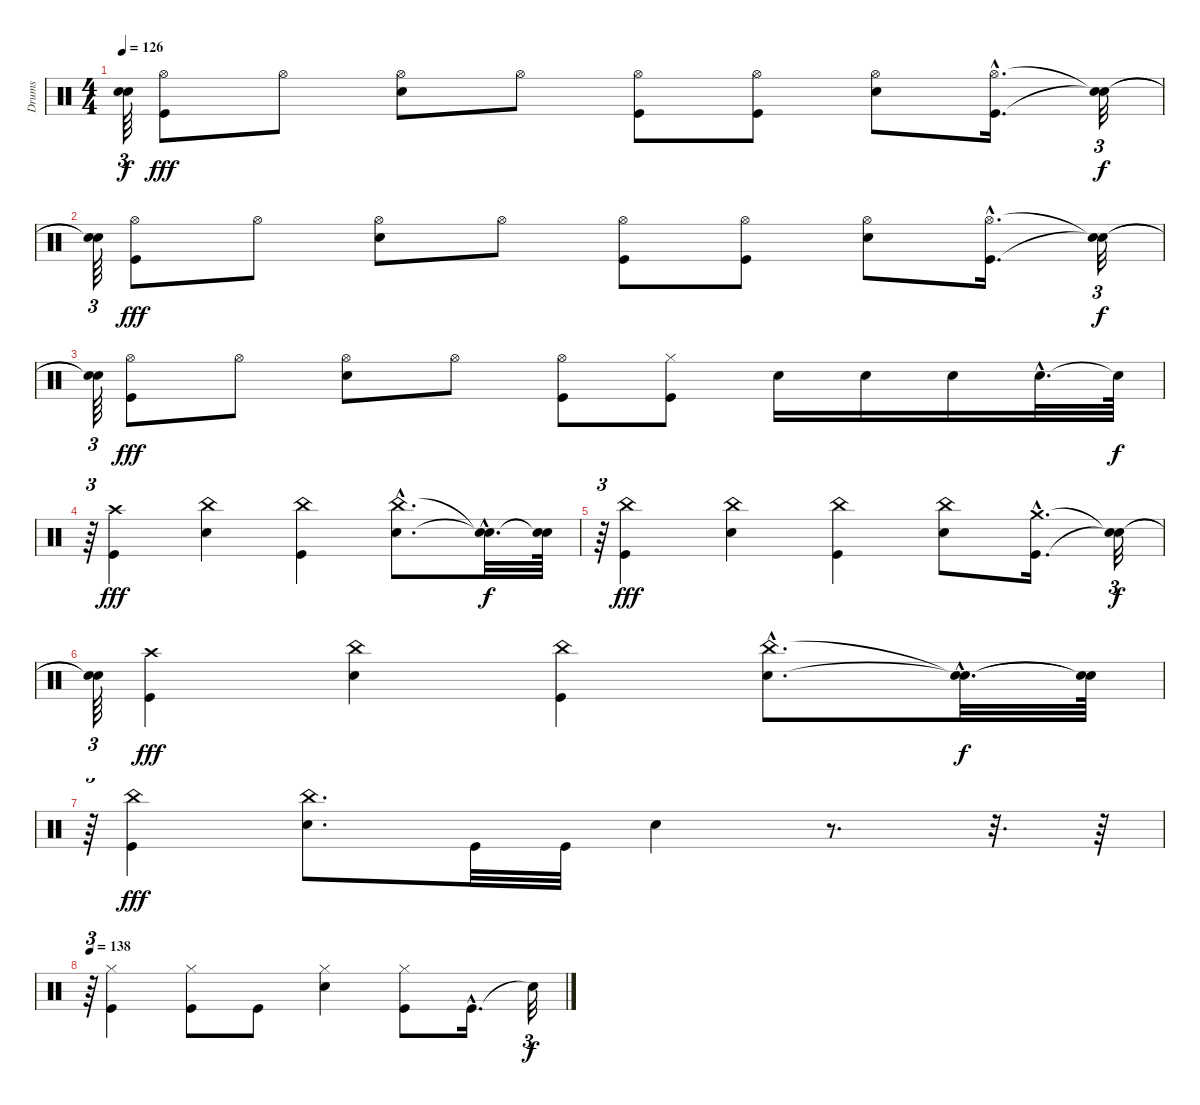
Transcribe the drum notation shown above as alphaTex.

\track ("Drums" "Drums") {instrument percussion}
\staff {score}
\articulation defaults
\ts (4 4)
\tempo 126
\clef neutral
\ks c
("Snare (hit)"{t} "Snare (hit)"{t}).64{tu (3 2) dy f} ("Kick (hit)" "Hi-Hat (open)").8{dy fff} "Hi-Hat (open)".8 ("Snare (hit) 2" "Hi-Hat (open)").8 "Hi-Hat (open)".8 ("Kick (hit)" "Hi-Hat (open)").8 ("Kick (hit)" "Hi-Hat (open)").8 ("Snare (hit) 2" "Hi-Hat (open)").8 ("Kick (hit)"{hac} "Hi-Hat (open)"{hac}).16{d} ("Snare (hit)"{t} "Snare (hit)"{t}).32{tu (3 2) dy f} |
("Snare (hit)"{t} "Snare (hit)"{t}).64{tu (3 2)} ("Kick (hit)" "Hi-Hat (open)").8{dy fff} "Hi-Hat (open)".8 ("Snare (hit) 2" "Hi-Hat (open)").8 "Hi-Hat (open)".8 ("Kick (hit)" "Hi-Hat (open)").8 ("Kick (hit)" "Hi-Hat (open)").8 ("Snare (hit) 2" "Hi-Hat (open)").8 ("Kick (hit)"{hac} "Hi-Hat (open)"{hac}).16{d} ("Snare (hit)"{t} "Snare (hit)"{t}).32{tu (3 2) dy f} |
("Snare (hit)"{t} "Snare (hit)"{t}).64{tu (3 2)} ("Kick (hit)" "Hi-Hat (open)").8{dy fff} "Hi-Hat (open)".8 ("Snare (hit) 2" "Hi-Hat (open)").8 "Hi-Hat (open)".8 ("Kick (hit)" "Hi-Hat (open)").8 ("Kick (hit)" "Hi-Hat (closed)").8 "Snare (hit) 2".16 "Snare (hit) 2".16 "Snare (hit) 2".16 "Snare (hit) 2"{hac}.32{d} "Snare (hit)"{t}.64{dy f} |
r.64{tu (3 2)} ("Kick (hit)" "Crash high (hit)").4{dy fff} ("Snare (hit) 2" "China (hit)").4 ("Kick (hit)" "China (hit)").4 ("Snare (hit) 2"{hac} "China (hit)"{hac}).8{d} ("Snare (hit)"{hac t} "Snare (hit)"{hac t}).32{d dy f} ("Snare (hit)"{t} "Snare (hit)"{t}).64 |
r.64{tu (3 2)} ("Kick (hit)" "China (hit)").4{dy fff} ("Snare (hit) 2" "China (hit)").4 ("Kick (hit)" "China (hit)").4 ("Snare (hit) 2" "China (hit)").8 ("Kick (hit)"{hac} "Crash medium (hit)"{hac}).16{d} ("Snare (hit)"{t} "Snare (hit)"{t}).32{tu (3 2) dy f} |
("Snare (hit)"{t} "Snare (hit)"{t}).64{tu (3 2)} ("Kick (hit)" "Crash high (hit)").4{dy fff} ("Snare (hit) 2" "China (hit)").4 ("Kick (hit)" "China (hit)").4 ("Snare (hit) 2"{hac} "China (hit)"{hac}).8{d} ("Snare (hit)"{hac t} "Snare (hit)"{hac t}).32{d dy f} ("Snare (hit)"{t} "Snare (hit)"{t}).64 |
r.64{tu (3 2)} ("Kick (hit)" "China (hit)").4{dy fff} ("Snare (hit) 2" "China (hit)").8{d} "Kick (hit)".32 "Kick (hit)".32 "Snare (hit) 2".4 r.8{d} r.32{d} r.64 |
\tempo 138
r.64{tu (3 2)} ("Kick (hit)" "Hi-Hat (closed)").4 ("Kick (hit)" "Hi-Hat (closed)").8 "Kick (hit)".8 ("Snare (hit) 2" "Hi-Hat (closed)").4 ("Kick (hit)" "Hi-Hat (closed)").8 "Kick (hit)"{hac}.16{d} "Snare (hit)"{t}.32{tu (3 2) dy f}
